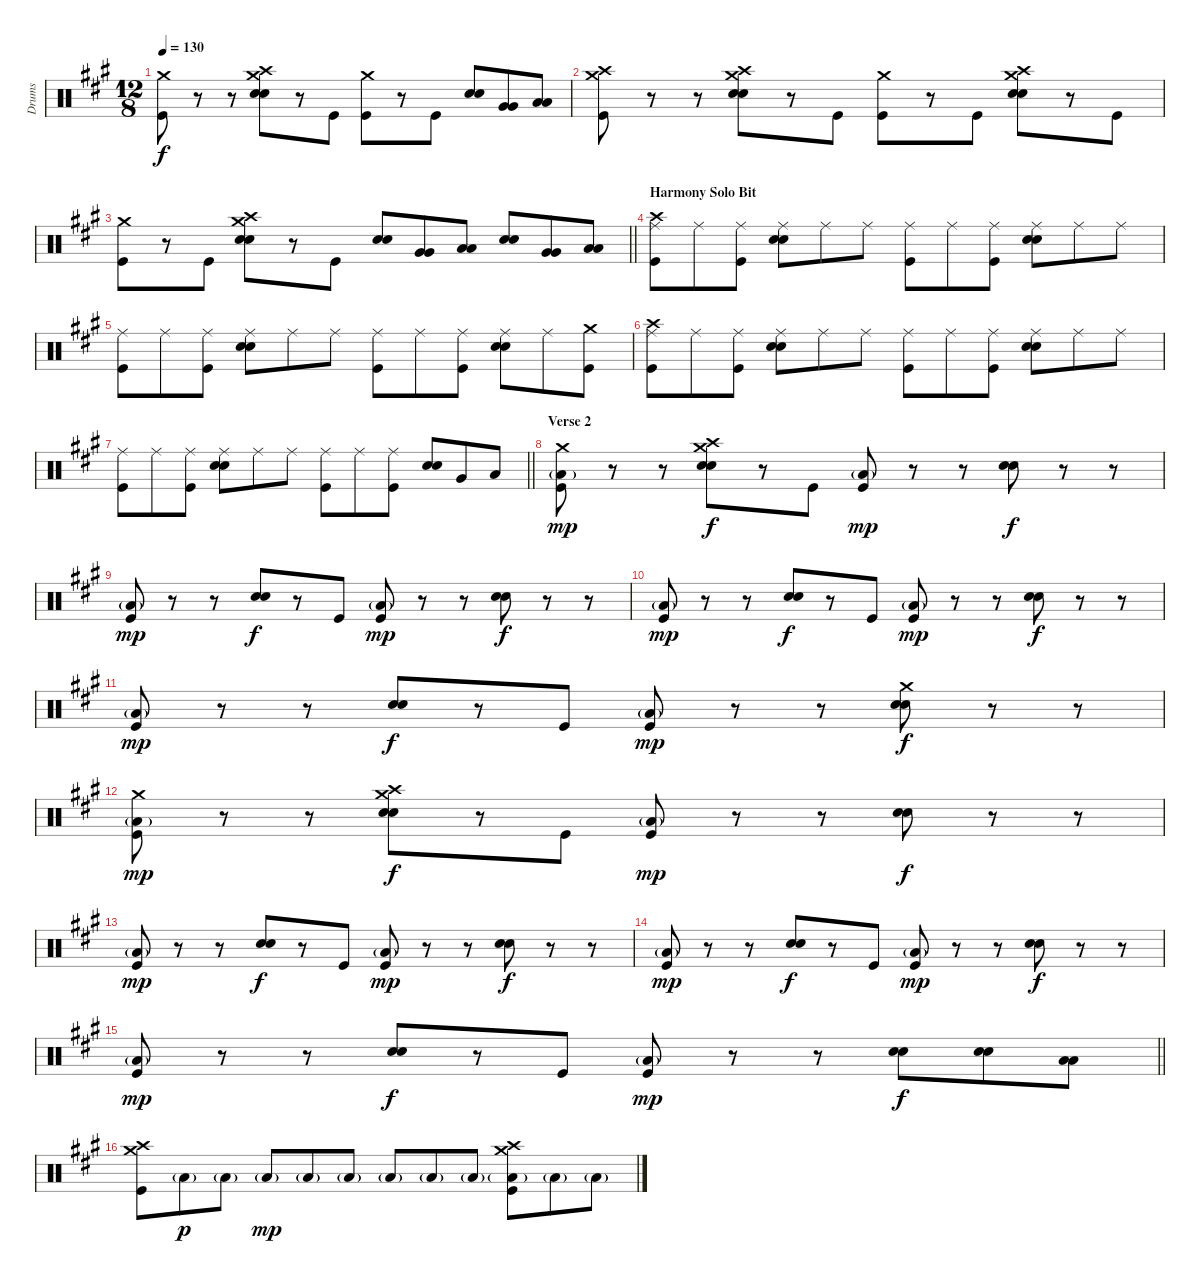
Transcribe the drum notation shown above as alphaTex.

\track ("Drums" "Drums") {instrument percussion}
\staff {score}
\articulation defaults
\ts (12 8)
\tempo 130
\clef neutral
\ks a
("Crash medium (hit)" "Kick (hit)").8{dy f} r.8 r.8 ("Crash high (hit)" "Crash medium (hit)" "Snare (hit) 2" "Snare (hit) 2").8 r.8 "Kick (hit)".8 ("Crash medium (hit)" "Kick (hit)").8 r.8 "Kick (hit)".8 ("Snare (hit) 2" "Snare (hit) 2").8 ("Very Low Tom (hit)" "Very Low Tom (hit)").8 ("Low Floor Tom (hit)" "Low Floor Tom (hit)").8 |
("Crash high (hit)" "Crash medium (hit)" "Kick (hit)").8 r.8 r.8 ("Crash high (hit)" "Crash medium (hit)" "Snare (hit) 2" "Snare (hit) 2").8 r.8 "Kick (hit)".8 ("Crash medium (hit)" "Kick (hit)").8 r.8 "Kick (hit)".8 ("Crash high (hit)" "Crash medium (hit)" "Snare (hit) 2" "Snare (hit) 2").8 r.8 "Kick (hit)".8 |
\barLineRight lightlight
("Crash medium (hit)" "Kick (hit)").8 r.8 "Kick (hit)".8 ("Crash high (hit)" "Crash medium (hit)" "Snare (hit) 2" "Snare (hit) 2").8 r.8 "Kick (hit)".8 ("Snare (hit) 2" "Snare (hit) 2").8 ("Very Low Tom (hit)" "Very Low Tom (hit)").8 ("Low Floor Tom (hit)" "Low Floor Tom (hit)").8 ("Snare (hit) 2" "Snare (hit) 2").8 ("Very Low Tom (hit)" "Very Low Tom (hit)").8 ("Low Floor Tom (hit)" "Low Floor Tom (hit)").8 |
\section ("" "Harmony Solo Bit")
("Crash high (hit)" "Ride (middle)" "Kick (hit)").8 "Ride (middle)".8 ("Ride (middle)" "Kick (hit)").8 ("Ride (middle)" "Snare (hit) 2" "Snare (hit) 2").8 "Ride (middle)".8 "Ride (middle)".8 ("Ride (middle)" "Kick (hit)").8 "Ride (middle)".8 ("Ride (middle)" "Kick (hit)").8 ("Ride (middle)" "Snare (hit) 2" "Snare (hit) 2").8 "Ride (middle)".8 "Ride (middle)".8 |
("Ride (middle)" "Kick (hit)").8 "Ride (middle)".8 ("Ride (middle)" "Kick (hit)").8 ("Ride (middle)" "Snare (hit) 2" "Snare (hit) 2").8 "Ride (middle)".8 "Ride (middle)".8 ("Ride (middle)" "Kick (hit)").8 "Ride (middle)".8 ("Ride (middle)" "Kick (hit)").8 ("Ride (middle)" "Snare (hit) 2" "Snare (hit) 2").8 "Ride (middle)".8 ("Crash medium (hit)" "Kick (hit)").8 |
("Crash high (hit)" "Ride (middle)" "Kick (hit)").8 "Ride (middle)".8 ("Ride (middle)" "Kick (hit)").8 ("Ride (middle)" "Snare (hit) 2" "Snare (hit) 2").8 "Ride (middle)".8 "Ride (middle)".8 ("Ride (middle)" "Kick (hit)").8 "Ride (middle)".8 ("Ride (middle)" "Kick (hit)").8 ("Ride (middle)" "Snare (hit) 2" "Snare (hit) 2").8 "Ride (middle)".8 "Ride (middle)".8 |
\barLineRight lightlight
("Ride (middle)" "Kick (hit)").8 "Ride (middle)".8 ("Ride (middle)" "Kick (hit)").8 ("Ride (middle)" "Snare (hit) 2" "Snare (hit) 2").8 "Ride (middle)".8 "Ride (middle)".8 ("Ride (middle)" "Kick (hit)").8 "Ride (middle)".8 ("Ride (middle)" "Kick (hit)").8 ("Snare (hit) 2" "Snare (hit) 2").8 "Very Low Tom (hit)".8 "Low Floor Tom (hit)".8 |
\section ("" "Verse 2")
("Crash medium (hit)" "Kick (hit)" "Low Floor Tom (hit)"{g}).8{dy mp} r.8 r.8 ("Crash high (hit)" "Crash medium (hit)" "Snare (hit) 2" "Snare (hit) 2").8{dy f} r.8 "Kick (hit)".8 ("Kick (hit)" "Low Floor Tom (hit)"{g}).8{dy mp} r.8 r.8 ("Snare (hit) 2" "Snare (hit) 2").8{dy f} r.8 r.8 |
("Kick (hit)" "Low Floor Tom (hit)"{g}).8{dy mp} r.8 r.8 ("Snare (hit) 2" "Snare (hit) 2").8{dy f} r.8 "Kick (hit)".8 ("Kick (hit)" "Low Floor Tom (hit)"{g}).8{dy mp} r.8 r.8 ("Snare (hit) 2" "Snare (hit) 2").8{dy f} r.8 r.8 |
("Kick (hit)" "Low Floor Tom (hit)"{g}).8{dy mp} r.8 r.8 ("Snare (hit) 2" "Snare (hit) 2").8{dy f} r.8 "Kick (hit)".8 ("Kick (hit)" "Low Floor Tom (hit)"{g}).8{dy mp} r.8 r.8 ("Snare (hit) 2" "Snare (hit) 2").8{dy f} r.8 r.8 |
("Kick (hit)" "Low Floor Tom (hit)"{g}).8{dy mp} r.8 r.8 ("Snare (hit) 2" "Snare (hit) 2").8{dy f} r.8 "Kick (hit)".8 ("Kick (hit)" "Low Floor Tom (hit)"{g}).8{dy mp} r.8 r.8 ("Crash medium (hit)" "Snare (hit) 2" "Snare (hit) 2").8{dy f} r.8 r.8 |
("Crash medium (hit)" "Kick (hit)" "Low Floor Tom (hit)"{g}).8{dy mp} r.8 r.8 ("Crash high (hit)" "Crash medium (hit)" "Snare (hit) 2" "Snare (hit) 2").8{dy f} r.8 "Kick (hit)".8 ("Kick (hit)" "Low Floor Tom (hit)"{g}).8{dy mp} r.8 r.8 ("Snare (hit) 2" "Snare (hit) 2").8{dy f} r.8 r.8 |
("Kick (hit)" "Low Floor Tom (hit)"{g}).8{dy mp} r.8 r.8 ("Snare (hit) 2" "Snare (hit) 2").8{dy f} r.8 "Kick (hit)".8 ("Kick (hit)" "Low Floor Tom (hit)"{g}).8{dy mp} r.8 r.8 ("Snare (hit) 2" "Snare (hit) 2").8{dy f} r.8 r.8 |
("Kick (hit)" "Low Floor Tom (hit)"{g}).8{dy mp} r.8 r.8 ("Snare (hit) 2" "Snare (hit) 2").8{dy f} r.8 "Kick (hit)".8 ("Kick (hit)" "Low Floor Tom (hit)"{g}).8{dy mp} r.8 r.8 ("Snare (hit) 2" "Snare (hit) 2").8{dy f} r.8 r.8 |
\barLineRight lightlight
("Kick (hit)" "Low Floor Tom (hit)"{g}).8{dy mp} r.8 r.8 ("Snare (hit) 2" "Snare (hit) 2").8{dy f} r.8 "Kick (hit)".8 ("Kick (hit)" "Low Floor Tom (hit)"{g}).8{dy mp} r.8 r.8 ("Snare (hit) 2" "Snare (hit) 2").8{dy f} ("Snare (hit) 2" "Snare (hit) 2").8 ("Low Floor Tom (hit)" "Low Floor Tom (hit)").8 |
("Crash high (hit)" "Crash medium (hit)" "Kick (hit)").8 "Low Floor Tom (hit)"{g}.8{dy p} "Low Floor Tom (hit)"{g}.8 "Low Floor Tom (hit)"{g}.8{dy mp} "Low Floor Tom (hit)"{g}.8 "Low Floor Tom (hit)"{g}.8 "Low Floor Tom (hit)"{g}.8 "Low Floor Tom (hit)"{g}.8 "Low Floor Tom (hit)"{g}.8 ("Crash high (hit)" "Crash medium (hit)" "Kick (hit)" "Low Floor Tom (hit)"{g}).8 "Low Floor Tom (hit)"{g}.8 "Low Floor Tom (hit)"{g}.8
